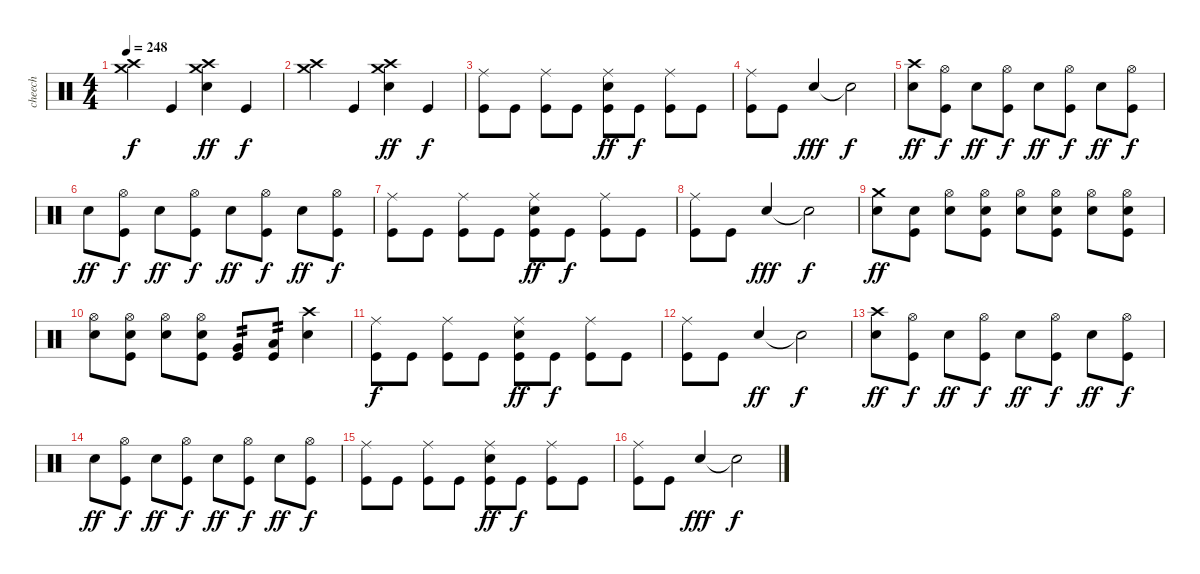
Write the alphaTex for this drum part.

\track ("cheech" "cheech") {instrument percussion}
\staff {score}
\articulation defaults
\ts (4 4)
\tempo 248
\clef neutral
\ks c
("Crash high (hit)" "Crash medium (hit)").4{dy f} "Kick (hit)".4 ("Crash high (hit)" "Crash medium (hit)" "Electric Snare (hit)").4{dy ff} "Kick (hit)".4{dy f} |
("Crash high (hit)" "Crash medium (hit)").4 "Kick (hit)".4 ("Crash medium (hit)" "Crash high (hit)" "Electric Snare (hit)").4{dy ff} "Kick (hit)".4{dy f} |
("Ride (middle)" "Kick (hit)").8 "Kick (hit)".8 ("Ride (middle)" "Kick (hit)").8 "Kick (hit)".8 ("Ride (middle)" "Electric Snare (hit)" "Kick (hit)").8{dy ff} "Kick (hit)".8{dy f} ("Ride (middle)" "Kick (hit)").8 "Kick (hit)".8 |
("Ride (middle)" "Kick (hit)").8 "Kick (hit)".8 "Electric Snare (hit)".4{dy fff beam Up} "Electric Snare (hit)"{t}.2{dy f} |
("Crash high (hit)" "Electric Snare (hit)").8{dy ff} ("Hi-Hat (open)" "Kick (hit)").8{dy f} "Electric Snare (hit)".8{dy ff} ("Hi-Hat (open)" "Kick (hit)").8{dy f} "Electric Snare (hit)".8{dy ff} ("Hi-Hat (open)" "Kick (hit)").8{dy f} "Electric Snare (hit)".8{dy ff} ("Hi-Hat (open)" "Kick (hit)").8{dy f} |
"Electric Snare (hit)".8{dy ff} ("Hi-Hat (open)" "Kick (hit)").8{dy f} "Electric Snare (hit)".8{dy ff} ("Hi-Hat (open)" "Kick (hit)").8{dy f} "Electric Snare (hit)".8{dy ff} ("Hi-Hat (open)" "Kick (hit)").8{dy f} "Electric Snare (hit)".8{dy ff} ("Hi-Hat (open)" "Kick (hit)").8{dy f} |
("Ride (middle)" "Kick (hit)").8 "Kick (hit)".8 ("Ride (middle)" "Kick (hit)").8 "Kick (hit)".8 ("Ride (middle)" "Electric Snare (hit)" "Kick (hit)").8{dy ff} "Kick (hit)".8{dy f} ("Ride (middle)" "Kick (hit)").8 "Kick (hit)".8 |
("Ride (middle)" "Kick (hit)").8 "Kick (hit)".8 "Electric Snare (hit)".4{dy fff beam Up} "Electric Snare (hit)"{t}.2{dy f} |
("Crash medium (hit)" "Electric Snare (hit)").8{dy ff} ("Electric Snare (hit)" "Kick (hit)").8 ("Hi-Hat (open)" "Electric Snare (hit)").8 ("Hi-Hat (open)" "Electric Snare (hit)" "Kick (hit)").8 ("Hi-Hat (open)" "Electric Snare (hit)").8 ("Hi-Hat (open)" "Electric Snare (hit)" "Kick (hit)").8 ("Hi-Hat (open)" "Electric Snare (hit)").8 ("Hi-Hat (open)" "Electric Snare (hit)" "Kick (hit)").8 |
("Hi-Hat (open)" "Electric Snare (hit)").8 ("Hi-Hat (open)" "Electric Snare (hit)" "Kick (hit)").8 ("Hi-Hat (open)" "Electric Snare (hit)").8 ("Hi-Hat (open)" "Electric Snare (hit)" "Kick (hit)").8 ("Very Low Tom (hit)" "Kick (hit)").8{tp 2} ("Low Floor Tom (hit)" "Kick (hit)").8{tp 2} ("Crash high (hit)" "Electric Snare (hit)").4 |
("Ride (middle)" "Kick (hit)").8{dy f} "Kick (hit)".8 ("Ride (middle)" "Kick (hit)").8 "Kick (hit)".8 ("Ride (middle)" "Electric Snare (hit)" "Kick (hit)").8{dy ff} "Kick (hit)".8{dy f} ("Ride (middle)" "Kick (hit)").8 "Kick (hit)".8 |
("Ride (middle)" "Kick (hit)").8 "Kick (hit)".8 "Electric Snare (hit)".4{dy ff beam Up} "Electric Snare (hit)"{t}.2{dy f} |
("Crash high (hit)" "Electric Snare (hit)").8{dy ff} ("Hi-Hat (open)" "Kick (hit)").8{dy f} "Electric Snare (hit)".8{dy ff} ("Hi-Hat (open)" "Kick (hit)").8{dy f} "Electric Snare (hit)".8{dy ff} ("Hi-Hat (open)" "Kick (hit)").8{dy f} "Electric Snare (hit)".8{dy ff} ("Hi-Hat (open)" "Kick (hit)").8{dy f} |
"Electric Snare (hit)".8{dy ff} ("Hi-Hat (open)" "Kick (hit)").8{dy f} "Electric Snare (hit)".8{dy ff} ("Hi-Hat (open)" "Kick (hit)").8{dy f} "Electric Snare (hit)".8{dy ff} ("Hi-Hat (open)" "Kick (hit)").8{dy f} "Electric Snare (hit)".8{dy ff} ("Hi-Hat (open)" "Kick (hit)").8{dy f} |
("Ride (middle)" "Kick (hit)").8 "Kick (hit)".8 ("Ride (middle)" "Kick (hit)").8 "Kick (hit)".8 ("Ride (middle)" "Electric Snare (hit)" "Kick (hit)").8{dy ff} "Kick (hit)".8{dy f} ("Ride (middle)" "Kick (hit)").8 "Kick (hit)".8 |
("Ride (middle)" "Kick (hit)").8 "Kick (hit)".8 "Electric Snare (hit)".4{dy fff beam Up} "Electric Snare (hit)"{t}.2{dy f}
